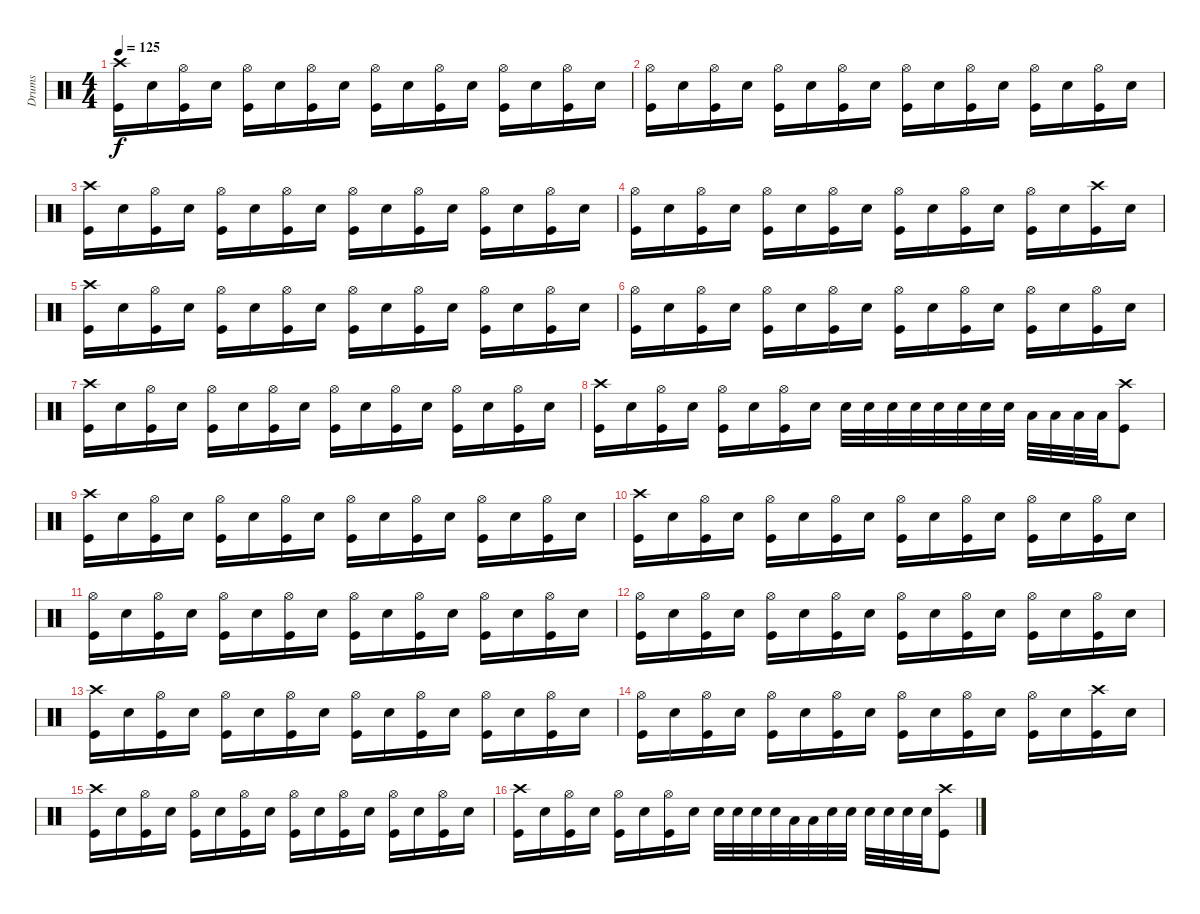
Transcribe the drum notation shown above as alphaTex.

\track ("Drums" "Drums") {instrument percussion}
\staff {score}
\articulation defaults
\ts (4 4)
\tempo 125
\clef neutral
\ks c
("Crash high (hit)" "Kick (hit)").16{dy f} "Electric Snare (hit)".16 ("Hi-Hat (open)" "Kick (hit)").16 "Electric Snare (hit)".16 ("Hi-Hat (open)" "Kick (hit)").16 "Electric Snare (hit)".16 ("Hi-Hat (open)" "Kick (hit)").16 "Electric Snare (hit)".16 ("Hi-Hat (open)" "Kick (hit)").16 "Electric Snare (hit)".16 ("Hi-Hat (open)" "Kick (hit)").16 "Electric Snare (hit)".16 ("Hi-Hat (open)" "Kick (hit)").16 "Electric Snare (hit)".16 ("Hi-Hat (open)" "Kick (hit)").16 "Electric Snare (hit)".16 |
("Hi-Hat (open)" "Kick (hit)").16 "Electric Snare (hit)".16 ("Hi-Hat (open)" "Kick (hit)").16 "Electric Snare (hit)".16 ("Hi-Hat (open)" "Kick (hit)").16 "Electric Snare (hit)".16 ("Hi-Hat (open)" "Kick (hit)").16 "Electric Snare (hit)".16 ("Hi-Hat (open)" "Kick (hit)").16 "Electric Snare (hit)".16 ("Hi-Hat (open)" "Kick (hit)").16 "Electric Snare (hit)".16 ("Hi-Hat (open)" "Kick (hit)").16 "Electric Snare (hit)".16 ("Hi-Hat (open)" "Kick (hit)").16 "Electric Snare (hit)".16 |
("Crash high (hit)" "Kick (hit)").16 "Electric Snare (hit)".16 ("Hi-Hat (open)" "Kick (hit)").16 "Electric Snare (hit)".16 ("Hi-Hat (open)" "Kick (hit)").16 "Electric Snare (hit)".16 ("Hi-Hat (open)" "Kick (hit)").16 "Electric Snare (hit)".16 ("Hi-Hat (open)" "Kick (hit)").16 "Electric Snare (hit)".16 ("Hi-Hat (open)" "Kick (hit)").16 "Electric Snare (hit)".16 ("Hi-Hat (open)" "Kick (hit)").16 "Electric Snare (hit)".16 ("Hi-Hat (open)" "Kick (hit)").16 "Electric Snare (hit)".16 |
("Hi-Hat (open)" "Kick (hit)").16 "Electric Snare (hit)".16 ("Hi-Hat (open)" "Kick (hit)").16 "Electric Snare (hit)".16 ("Hi-Hat (open)" "Kick (hit)").16 "Electric Snare (hit)".16 ("Hi-Hat (open)" "Kick (hit)").16 "Electric Snare (hit)".16 ("Hi-Hat (open)" "Kick (hit)").16 "Electric Snare (hit)".16 ("Hi-Hat (open)" "Kick (hit)").16 "Electric Snare (hit)".16 ("Hi-Hat (open)" "Kick (hit)").16 "Electric Snare (hit)".16 ("Crash high (hit)" "Kick (hit)").16 "Electric Snare (hit)".16 |
("Crash high (hit)" "Kick (hit)").16 "Electric Snare (hit)".16 ("Hi-Hat (open)" "Kick (hit)").16 "Electric Snare (hit)".16 ("Hi-Hat (open)" "Kick (hit)").16 "Electric Snare (hit)".16 ("Hi-Hat (open)" "Kick (hit)").16 "Electric Snare (hit)".16 ("Hi-Hat (open)" "Kick (hit)").16 "Electric Snare (hit)".16 ("Hi-Hat (open)" "Kick (hit)").16 "Electric Snare (hit)".16 ("Hi-Hat (open)" "Kick (hit)").16 "Electric Snare (hit)".16 ("Hi-Hat (open)" "Kick (hit)").16 "Electric Snare (hit)".16 |
("Hi-Hat (open)" "Kick (hit)").16 "Electric Snare (hit)".16 ("Hi-Hat (open)" "Kick (hit)").16 "Electric Snare (hit)".16 ("Hi-Hat (open)" "Kick (hit)").16 "Electric Snare (hit)".16 ("Hi-Hat (open)" "Kick (hit)").16 "Electric Snare (hit)".16 ("Hi-Hat (open)" "Kick (hit)").16 "Electric Snare (hit)".16 ("Hi-Hat (open)" "Kick (hit)").16 "Electric Snare (hit)".16 ("Hi-Hat (open)" "Kick (hit)").16 "Electric Snare (hit)".16 ("Hi-Hat (open)" "Kick (hit)").16 "Electric Snare (hit)".16 |
("Crash high (hit)" "Kick (hit)").16 "Electric Snare (hit)".16 ("Hi-Hat (open)" "Kick (hit)").16 "Electric Snare (hit)".16 ("Hi-Hat (open)" "Kick (hit)").16 "Electric Snare (hit)".16 ("Hi-Hat (open)" "Kick (hit)").16 "Electric Snare (hit)".16 ("Hi-Hat (open)" "Kick (hit)").16 "Electric Snare (hit)".16 ("Hi-Hat (open)" "Kick (hit)").16 "Electric Snare (hit)".16 ("Hi-Hat (open)" "Kick (hit)").16 "Electric Snare (hit)".16 ("Hi-Hat (open)" "Kick (hit)").16 "Electric Snare (hit)".16 |
("Crash high (hit)" "Kick (hit)").16 "Electric Snare (hit)".16 ("Hi-Hat (open)" "Kick (hit)").16 "Electric Snare (hit)".16 ("Hi-Hat (open)" "Kick (hit)").16 "Electric Snare (hit)".16 ("Hi-Hat (open)" "Kick (hit)").16 "Electric Snare (hit)".16 "Electric Snare (hit)".32 "Electric Snare (hit)".32 "Electric Snare (hit)".32 "Electric Snare (hit)".32 "Electric Snare (hit)".32 "Electric Snare (hit)".32 "Electric Snare (hit)".32 "Electric Snare (hit)".32 "Low Tom (hit)".32 "Low Tom (hit)".32 "Low Tom (hit)".32 "Low Tom (hit)".32 ("Crash high (hit)" "Kick (hit)").8 |
("Crash high (hit)" "Kick (hit)").16 "Electric Snare (hit)".16 ("Hi-Hat (open)" "Kick (hit)").16 "Electric Snare (hit)".16 ("Hi-Hat (open)" "Kick (hit)").16 "Electric Snare (hit)".16 ("Hi-Hat (open)" "Kick (hit)").16 "Electric Snare (hit)".16 ("Hi-Hat (open)" "Kick (hit)").16 "Electric Snare (hit)".16 ("Hi-Hat (open)" "Kick (hit)").16 "Electric Snare (hit)".16 ("Hi-Hat (open)" "Kick (hit)").16 "Electric Snare (hit)".16 ("Hi-Hat (open)" "Kick (hit)").16 "Electric Snare (hit)".16 |
("Crash high (hit)" "Kick (hit)").16 "Electric Snare (hit)".16 ("Hi-Hat (open)" "Kick (hit)").16 "Electric Snare (hit)".16 ("Hi-Hat (open)" "Kick (hit)").16 "Electric Snare (hit)".16 ("Hi-Hat (open)" "Kick (hit)").16 "Electric Snare (hit)".16 ("Hi-Hat (open)" "Kick (hit)").16 "Electric Snare (hit)".16 ("Hi-Hat (open)" "Kick (hit)").16 "Electric Snare (hit)".16 ("Hi-Hat (open)" "Kick (hit)").16 "Electric Snare (hit)".16 ("Hi-Hat (open)" "Kick (hit)").16 "Electric Snare (hit)".16 |
("Hi-Hat (open)" "Kick (hit)").16 "Electric Snare (hit)".16 ("Hi-Hat (open)" "Kick (hit)").16 "Electric Snare (hit)".16 ("Hi-Hat (open)" "Kick (hit)").16 "Electric Snare (hit)".16 ("Hi-Hat (open)" "Kick (hit)").16 "Electric Snare (hit)".16 ("Hi-Hat (open)" "Kick (hit)").16 "Electric Snare (hit)".16 ("Hi-Hat (open)" "Kick (hit)").16 "Electric Snare (hit)".16 ("Hi-Hat (open)" "Kick (hit)").16 "Electric Snare (hit)".16 ("Hi-Hat (open)" "Kick (hit)").16 "Electric Snare (hit)".16 |
("Hi-Hat (open)" "Kick (hit)").16 "Electric Snare (hit)".16 ("Hi-Hat (open)" "Kick (hit)").16 "Electric Snare (hit)".16 ("Hi-Hat (open)" "Kick (hit)").16 "Electric Snare (hit)".16 ("Hi-Hat (open)" "Kick (hit)").16 "Electric Snare (hit)".16 ("Hi-Hat (open)" "Kick (hit)").16 "Electric Snare (hit)".16 ("Hi-Hat (open)" "Kick (hit)").16 "Electric Snare (hit)".16 ("Hi-Hat (open)" "Kick (hit)").16 "Electric Snare (hit)".16 ("Hi-Hat (open)" "Kick (hit)").16 "Electric Snare (hit)".16 |
("Crash high (hit)" "Kick (hit)").16 "Electric Snare (hit)".16 ("Hi-Hat (open)" "Kick (hit)").16 "Electric Snare (hit)".16 ("Hi-Hat (open)" "Kick (hit)").16 "Electric Snare (hit)".16 ("Hi-Hat (open)" "Kick (hit)").16 "Electric Snare (hit)".16 ("Hi-Hat (open)" "Kick (hit)").16 "Electric Snare (hit)".16 ("Hi-Hat (open)" "Kick (hit)").16 "Electric Snare (hit)".16 ("Hi-Hat (open)" "Kick (hit)").16 "Electric Snare (hit)".16 ("Hi-Hat (open)" "Kick (hit)").16 "Electric Snare (hit)".16 |
("Hi-Hat (open)" "Kick (hit)").16 "Electric Snare (hit)".16 ("Hi-Hat (open)" "Kick (hit)").16 "Electric Snare (hit)".16 ("Hi-Hat (open)" "Kick (hit)").16 "Electric Snare (hit)".16 ("Hi-Hat (open)" "Kick (hit)").16 "Electric Snare (hit)".16 ("Hi-Hat (open)" "Kick (hit)").16 "Electric Snare (hit)".16 ("Hi-Hat (open)" "Kick (hit)").16 "Electric Snare (hit)".16 ("Hi-Hat (open)" "Kick (hit)").16 "Electric Snare (hit)".16 ("Crash high (hit)" "Kick (hit)").16 "Electric Snare (hit)".16 |
("Crash high (hit)" "Kick (hit)").16 "Electric Snare (hit)".16 ("Hi-Hat (open)" "Kick (hit)").16 "Electric Snare (hit)".16 ("Hi-Hat (open)" "Kick (hit)").16 "Electric Snare (hit)".16 ("Hi-Hat (open)" "Kick (hit)").16 "Electric Snare (hit)".16 ("Hi-Hat (open)" "Kick (hit)").16 "Electric Snare (hit)".16 ("Hi-Hat (open)" "Kick (hit)").16 "Electric Snare (hit)".16 ("Hi-Hat (open)" "Kick (hit)").16 "Electric Snare (hit)".16 ("Hi-Hat (open)" "Kick (hit)").16 "Electric Snare (hit)".16 |
("Crash high (hit)" "Kick (hit)").16 "Electric Snare (hit)".16 ("Hi-Hat (open)" "Kick (hit)").16 "Electric Snare (hit)".16 ("Hi-Hat (open)" "Kick (hit)").16 "Electric Snare (hit)".16 ("Hi-Hat (open)" "Kick (hit)").16 "Electric Snare (hit)".16 "Electric Snare (hit)".32 "Electric Snare (hit)".32 "Electric Snare (hit)".32 "Electric Snare (hit)".32 "Low Tom (hit)".32 "Low Tom (hit)".32 "Electric Snare (hit)".32 "Electric Snare (hit)".32 "Electric Snare (hit)".32 "Electric Snare (hit)".32 "Electric Snare (hit)".32 "Electric Snare (hit)".32 ("Crash high (hit)" "Kick (hit)").8
